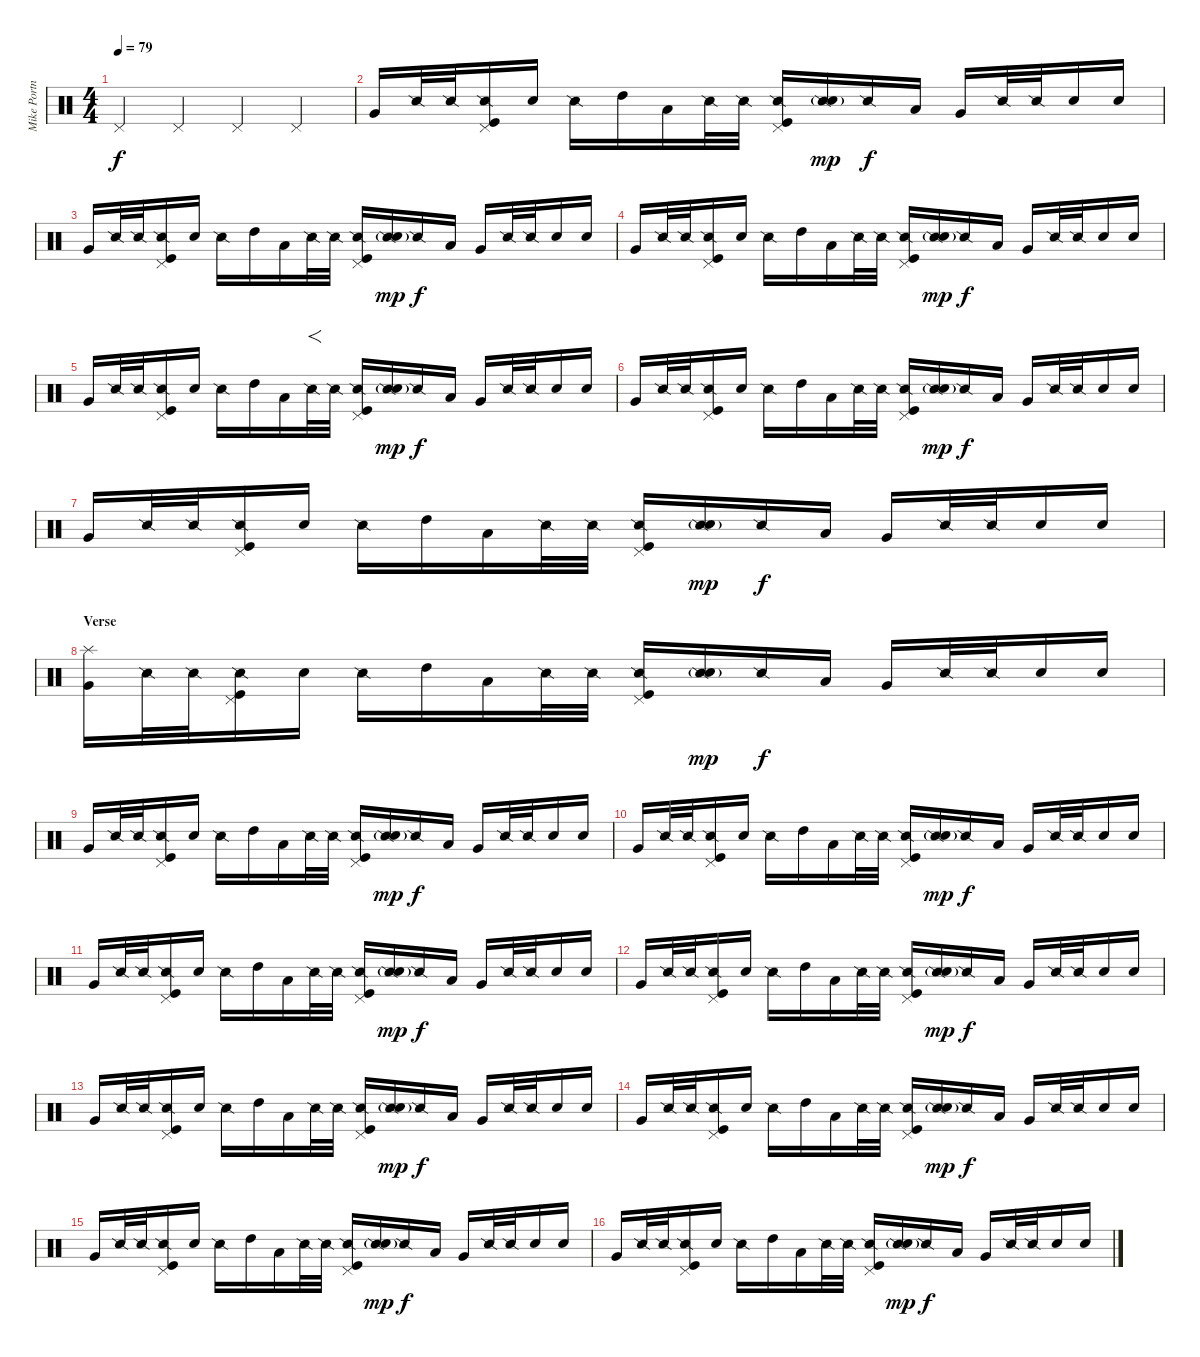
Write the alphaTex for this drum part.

\track ("Mike Portnoy" "Mike Portn") {instrument percussion}
\staff {score}
\articulation defaults
\ts (4 4)
\tempo 79
\clef neutral
\ks c "Pedal Hi-Hat (hit)".4{dy f volume 11} "Pedal Hi-Hat (hit)".4 "Pedal Hi-Hat (hit)".4 "Pedal Hi-Hat (hit)".4
|
"Very Low Tom (hit)".16 "Snare (side stick) 2".32 "Snare (side stick) 2".32 ("Snare (side stick) 2" "Pedal Hi-Hat (hit)" "Kick (hit)").16 "Electric Snare (hit)".16 "Snare (side stick) 2".16 "High Tom (hit)".16 "Low Tom (hit)".16 "Snare (side stick) 2".32 "Snare (side stick) 2".32 ("Snare (side stick) 2" "Pedal Hi-Hat (hit)" "Kick (hit)").16 ("Snare (side stick) 2" "Electric Snare (hit)"{g}).16{dy mp} "Snare (side stick) 2".16{dy f} "Low Tom (hit)".16 "Very Low Tom (hit)".16 "Snare (side stick) 2".32 "Snare (side stick) 2".32 "Electric Snare (hit)".16 "Electric Snare (hit)".16 |
"Very Low Tom (hit)".16 "Snare (side stick) 2".32 "Snare (side stick) 2".32 ("Snare (side stick) 2" "Pedal Hi-Hat (hit)" "Kick (hit)").16 "Electric Snare (hit)".16 "Snare (side stick) 2".16 "High Tom (hit)".16 "Low Tom (hit)".16 "Snare (side stick) 2".32 "Snare (side stick) 2".32 ("Snare (side stick) 2" "Pedal Hi-Hat (hit)" "Kick (hit)").16 ("Snare (side stick) 2" "Electric Snare (hit)"{g}).16{dy mp} "Snare (side stick) 2".16{dy f} "Low Tom (hit)".16 "Very Low Tom (hit)".16 "Snare (side stick) 2".32 "Snare (side stick) 2".32 "Electric Snare (hit)".16 "Electric Snare (hit)".16 |
"Very Low Tom (hit)".16 "Snare (side stick) 2".32 "Snare (side stick) 2".32 ("Snare (side stick) 2" "Pedal Hi-Hat (hit)" "Kick (hit)").16 "Electric Snare (hit)".16 "Snare (side stick) 2".16 "High Tom (hit)".16 "Low Tom (hit)".16 "Snare (side stick) 2".32 "Snare (side stick) 2".32 ("Snare (side stick) 2" "Pedal Hi-Hat (hit)" "Kick (hit)").16 ("Snare (side stick) 2" "Electric Snare (hit)"{g}).16{dy mp} "Snare (side stick) 2".16{dy f} "Low Tom (hit)".16 "Very Low Tom (hit)".16 "Snare (side stick) 2".32 "Snare (side stick) 2".32 "Electric Snare (hit)".16 "Electric Snare (hit)".16 |
"Very Low Tom (hit)".16 "Snare (side stick) 2".32 "Snare (side stick) 2".32 ("Snare (side stick) 2" "Pedal Hi-Hat (hit)" "Kick (hit)").16 "Electric Snare (hit)".16 "Snare (side stick) 2".16 "High Tom (hit)".16 "Low Tom (hit)".16 "Snare (side stick) 2".32{f} "Snare (side stick) 2".32 ("Snare (side stick) 2" "Pedal Hi-Hat (hit)" "Kick (hit)").16 ("Snare (side stick) 2" "Electric Snare (hit)"{g}).16{dy mp} "Snare (side stick) 2".16{dy f} "Low Tom (hit)".16 "Very Low Tom (hit)".16 "Snare (side stick) 2".32 "Snare (side stick) 2".32 "Electric Snare (hit)".16 "Electric Snare (hit)".16 |
"Very Low Tom (hit)".16 "Snare (side stick) 2".32 "Snare (side stick) 2".32 ("Snare (side stick) 2" "Pedal Hi-Hat (hit)" "Kick (hit)").16 "Electric Snare (hit)".16 "Snare (side stick) 2".16 "High Tom (hit)".16 "Low Tom (hit)".16 "Snare (side stick) 2".32 "Snare (side stick) 2".32 ("Snare (side stick) 2" "Pedal Hi-Hat (hit)" "Kick (hit)").16 ("Snare (side stick) 2" "Electric Snare (hit)"{g}).16{dy mp} "Snare (side stick) 2".16{dy f} "Low Tom (hit)".16 "Very Low Tom (hit)".16 "Snare (side stick) 2".32 "Snare (side stick) 2".32 "Electric Snare (hit)".16 "Electric Snare (hit)".16 |
"Very Low Tom (hit)".16 "Snare (side stick) 2".32 "Snare (side stick) 2".32 ("Snare (side stick) 2" "Pedal Hi-Hat (hit)" "Kick (hit)").16 "Electric Snare (hit)".16 "Snare (side stick) 2".16 "High Tom (hit)".16 "Low Tom (hit)".16 "Snare (side stick) 2".32 "Snare (side stick) 2".32 ("Snare (side stick) 2" "Pedal Hi-Hat (hit)" "Kick (hit)").16 ("Snare (side stick) 2" "Electric Snare (hit)"{g}).16{dy mp} "Snare (side stick) 2".16{dy f} "Low Tom (hit)".16 "Very Low Tom (hit)".16 "Snare (side stick) 2".32 "Snare (side stick) 2".32 "Electric Snare (hit)".16 "Electric Snare (hit)".16 |
\section ("" "Verse")
("Splash (hit)" "Very Low Tom (hit)").16{volume 11} "Snare (side stick) 2".32 "Snare (side stick) 2".32 ("Snare (side stick) 2" "Pedal Hi-Hat (hit)" "Kick (hit)").16 "Electric Snare (hit)".16 "Snare (side stick) 2".16 "High Tom (hit)".16 "Low Tom (hit)".16 "Snare (side stick) 2".32 "Snare (side stick) 2".32 ("Snare (side stick) 2" "Pedal Hi-Hat (hit)" "Kick (hit)").16 ("Snare (side stick) 2" "Electric Snare (hit)"{g}).16{dy mp} "Snare (side stick) 2".16{dy f} "Low Tom (hit)".16 "Very Low Tom (hit)".16 "Snare (side stick) 2".32 "Snare (side stick) 2".32 "Electric Snare (hit)".16 "Electric Snare (hit)".16 |
"Very Low Tom (hit)".16 "Snare (side stick) 2".32 "Snare (side stick) 2".32 ("Snare (side stick) 2" "Pedal Hi-Hat (hit)" "Kick (hit)").16 "Electric Snare (hit)".16 "Snare (side stick) 2".16 "High Tom (hit)".16 "Low Tom (hit)".16 "Snare (side stick) 2".32 "Snare (side stick) 2".32 ("Snare (side stick) 2" "Pedal Hi-Hat (hit)" "Kick (hit)").16 ("Snare (side stick) 2" "Electric Snare (hit)"{g}).16{dy mp} "Snare (side stick) 2".16{dy f} "Low Tom (hit)".16 "Very Low Tom (hit)".16 "Snare (side stick) 2".32 "Snare (side stick) 2".32 "Electric Snare (hit)".16 "Electric Snare (hit)".16 |
"Very Low Tom (hit)".16 "Snare (side stick) 2".32 "Snare (side stick) 2".32 ("Snare (side stick) 2" "Pedal Hi-Hat (hit)" "Kick (hit)").16 "Electric Snare (hit)".16 "Snare (side stick) 2".16 "High Tom (hit)".16 "Low Tom (hit)".16 "Snare (side stick) 2".32 "Snare (side stick) 2".32 ("Snare (side stick) 2" "Pedal Hi-Hat (hit)" "Kick (hit)").16 ("Snare (side stick) 2" "Electric Snare (hit)"{g}).16{dy mp} "Snare (side stick) 2".16{dy f} "Low Tom (hit)".16 "Very Low Tom (hit)".16 "Snare (side stick) 2".32 "Snare (side stick) 2".32 "Electric Snare (hit)".16 "Electric Snare (hit)".16 |
"Very Low Tom (hit)".16 "Snare (side stick) 2".32 "Snare (side stick) 2".32 ("Snare (side stick) 2" "Pedal Hi-Hat (hit)" "Kick (hit)").16 "Electric Snare (hit)".16 "Snare (side stick) 2".16 "High Tom (hit)".16 "Low Tom (hit)".16 "Snare (side stick) 2".32 "Snare (side stick) 2".32 ("Snare (side stick) 2" "Pedal Hi-Hat (hit)" "Kick (hit)").16 ("Snare (side stick) 2" "Electric Snare (hit)"{g}).16{dy mp} "Snare (side stick) 2".16{dy f} "Low Tom (hit)".16 "Very Low Tom (hit)".16 "Snare (side stick) 2".32 "Snare (side stick) 2".32 "Electric Snare (hit)".16 "Electric Snare (hit)".16 |
"Very Low Tom (hit)".16 "Snare (side stick) 2".32 "Snare (side stick) 2".32 ("Snare (side stick) 2" "Pedal Hi-Hat (hit)" "Kick (hit)").16 "Electric Snare (hit)".16 "Snare (side stick) 2".16 "High Tom (hit)".16 "Low Tom (hit)".16 "Snare (side stick) 2".32 "Snare (side stick) 2".32 ("Snare (side stick) 2" "Pedal Hi-Hat (hit)" "Kick (hit)").16 ("Snare (side stick) 2" "Electric Snare (hit)"{g}).16{dy mp} "Snare (side stick) 2".16{dy f} "Low Tom (hit)".16 "Very Low Tom (hit)".16 "Snare (side stick) 2".32 "Snare (side stick) 2".32 "Electric Snare (hit)".16 "Electric Snare (hit)".16 |
"Very Low Tom (hit)".16 "Snare (side stick) 2".32 "Snare (side stick) 2".32 ("Snare (side stick) 2" "Pedal Hi-Hat (hit)" "Kick (hit)").16 "Electric Snare (hit)".16 "Snare (side stick) 2".16 "High Tom (hit)".16 "Low Tom (hit)".16 "Snare (side stick) 2".32 "Snare (side stick) 2".32 ("Snare (side stick) 2" "Pedal Hi-Hat (hit)" "Kick (hit)").16 ("Snare (side stick) 2" "Electric Snare (hit)"{g}).16{dy mp} "Snare (side stick) 2".16{dy f} "Low Tom (hit)".16 "Very Low Tom (hit)".16 "Snare (side stick) 2".32 "Snare (side stick) 2".32 "Electric Snare (hit)".16 "Electric Snare (hit)".16 |
"Very Low Tom (hit)".16 "Snare (side stick) 2".32 "Snare (side stick) 2".32 ("Snare (side stick) 2" "Pedal Hi-Hat (hit)" "Kick (hit)").16 "Electric Snare (hit)".16 "Snare (side stick) 2".16 "High Tom (hit)".16 "Low Tom (hit)".16 "Snare (side stick) 2".32 "Snare (side stick) 2".32 ("Snare (side stick) 2" "Pedal Hi-Hat (hit)" "Kick (hit)").16 ("Snare (side stick) 2" "Electric Snare (hit)"{g}).16{dy mp} "Snare (side stick) 2".16{dy f} "Low Tom (hit)".16 "Very Low Tom (hit)".16 "Snare (side stick) 2".32 "Snare (side stick) 2".32 "Electric Snare (hit)".16 "Electric Snare (hit)".16 |
"Very Low Tom (hit)".16 "Snare (side stick) 2".32 "Snare (side stick) 2".32 ("Snare (side stick) 2" "Pedal Hi-Hat (hit)" "Kick (hit)").16 "Electric Snare (hit)".16 "Snare (side stick) 2".16 "High Tom (hit)".16 "Low Tom (hit)".16 "Snare (side stick) 2".32 "Snare (side stick) 2".32 ("Snare (side stick) 2" "Pedal Hi-Hat (hit)" "Kick (hit)").16 ("Snare (side stick) 2" "Electric Snare (hit)"{g}).16{dy mp} "Snare (side stick) 2".16{dy f} "Low Tom (hit)".16 "Very Low Tom (hit)".16 "Snare (side stick) 2".32 "Snare (side stick) 2".32 "Electric Snare (hit)".16 "Electric Snare (hit)".16 |
"Very Low Tom (hit)".16 "Snare (side stick) 2".32 "Snare (side stick) 2".32 ("Snare (side stick) 2" "Pedal Hi-Hat (hit)" "Kick (hit)").16 "Electric Snare (hit)".16 "Snare (side stick) 2".16 "High Tom (hit)".16 "Low Tom (hit)".16 "Snare (side stick) 2".32 "Snare (side stick) 2".32 ("Snare (side stick) 2" "Pedal Hi-Hat (hit)" "Kick (hit)").16 ("Snare (side stick) 2" "Electric Snare (hit)"{g}).16{dy mp} "Snare (side stick) 2".16{dy f} "Low Tom (hit)".16 "Very Low Tom (hit)".16 "Snare (side stick) 2".32 "Snare (side stick) 2".32 "Electric Snare (hit)".16 "Electric Snare (hit)".16
